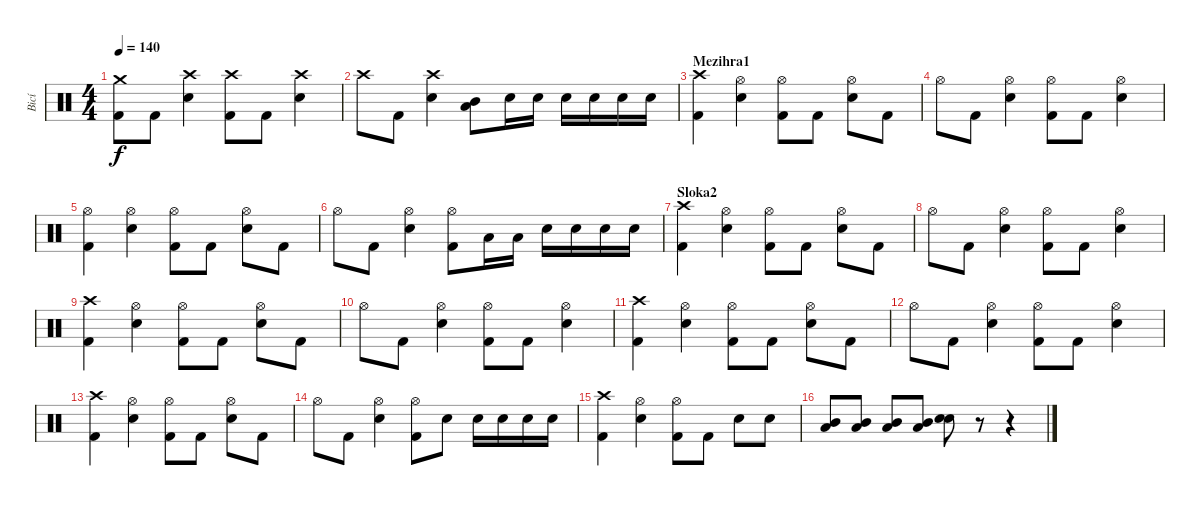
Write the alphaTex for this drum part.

\track ("Bicí" "Bicí") {instrument percussion}
\staff {score}
\articulation defaults
\ts (4 4)
\tempo 140
\clef neutral
\ks c
("Crash medium (hit)" "Kick (hit) 2").8{dy f} "Kick (hit) 2".8 ("Crash high (hit)" "Snare (hit) 2").4 ("Crash high (hit)" "Kick (hit) 2").8 "Kick (hit) 2".8 ("Crash high (hit)" "Snare (hit) 2").4 |
"Crash high (hit)".8 "Kick (hit) 2".8 ("Crash high (hit)" "Snare (hit) 2").4 ("Low Tom (hit)" "Mid Tom (hit)").8 "Snare (hit) 2".16 "Snare (hit) 2".16 "Snare (hit) 2".16 "Snare (hit) 2".16 "Snare (hit) 2".16 "Snare (hit) 2".16 |
\section ("" "Mezihra1")
("Crash high (hit)" "Kick (hit) 2").4 ("Hi-Hat (open)" "Snare (hit) 2").4 ("Hi-Hat (open)" "Kick (hit) 2").8 "Kick (hit) 2".8 ("Hi-Hat (open)" "Snare (hit) 2").8 "Kick (hit) 2".8 |
"Hi-Hat (open)".8 "Kick (hit) 2".8 ("Hi-Hat (open)" "Snare (hit) 2").4 ("Hi-Hat (open)" "Kick (hit) 2").8 "Kick (hit) 2".8 ("Hi-Hat (open)" "Snare (hit) 2").4 |
("Hi-Hat (open)" "Kick (hit) 2").4 ("Hi-Hat (open)" "Snare (hit) 2").4 ("Hi-Hat (open)" "Kick (hit) 2").8 "Kick (hit) 2".8 ("Hi-Hat (open)" "Snare (hit) 2").8 "Kick (hit) 2".8 |
"Hi-Hat (open)".8 "Kick (hit) 2".8 ("Hi-Hat (open)" "Snare (hit) 2").4 ("Hi-Hat (open)" "Kick (hit) 2").8 "Low Tom (hit)".16 "Low Tom (hit)".16 "Snare (hit) 2".16 "Snare (hit) 2".16 "Snare (hit) 2".16 "Snare (hit) 2".16 |
\section ("" "Sloka2")
("Crash high (hit)" "Kick (hit) 2").4 ("Hi-Hat (open)" "Snare (hit) 2").4 ("Hi-Hat (open)" "Kick (hit) 2").8 "Kick (hit) 2".8 ("Hi-Hat (open)" "Snare (hit) 2").8 "Kick (hit) 2".8 |
"Hi-Hat (open)".8 "Kick (hit) 2".8 ("Hi-Hat (open)" "Snare (hit) 2").4 ("Hi-Hat (open)" "Kick (hit) 2").8 "Kick (hit) 2".8 ("Hi-Hat (open)" "Snare (hit) 2").4 |
("Crash high (hit)" "Kick (hit) 2").4 ("Hi-Hat (open)" "Snare (hit) 2").4 ("Hi-Hat (open)" "Kick (hit) 2").8 "Kick (hit) 2".8 ("Hi-Hat (open)" "Snare (hit) 2").8 "Kick (hit) 2".8 |
"Hi-Hat (open)".8 "Kick (hit) 2".8 ("Hi-Hat (open)" "Snare (hit) 2").4 ("Hi-Hat (open)" "Kick (hit) 2").8 "Kick (hit) 2".8 ("Hi-Hat (open)" "Snare (hit) 2").4 |
("Crash high (hit)" "Kick (hit) 2").4 ("Hi-Hat (open)" "Snare (hit) 2").4 ("Hi-Hat (open)" "Kick (hit) 2").8 "Kick (hit) 2".8 ("Hi-Hat (open)" "Snare (hit) 2").8 "Kick (hit) 2".8 |
"Hi-Hat (open)".8 "Kick (hit) 2".8 ("Hi-Hat (open)" "Snare (hit) 2").4 ("Hi-Hat (open)" "Kick (hit) 2").8 "Kick (hit) 2".8 ("Hi-Hat (open)" "Snare (hit) 2").4 |
("Crash high (hit)" "Kick (hit) 2").4 ("Hi-Hat (open)" "Snare (hit) 2").4 ("Hi-Hat (open)" "Kick (hit) 2").8 "Kick (hit) 2".8 ("Hi-Hat (open)" "Snare (hit) 2").8 "Kick (hit) 2".8 |
"Hi-Hat (open)".8 "Kick (hit) 2".8 ("Hi-Hat (open)" "Snare (hit) 2").4 ("Hi-Hat (open)" "Kick (hit) 2").8 "Snare (hit) 2".8 "Snare (hit) 2".16 "Snare (hit) 2".16 "Snare (hit) 2".16 "Snare (hit) 2".16 |
("Crash high (hit)" "Kick (hit) 2").4 ("Hi-Hat (open)" "Snare (hit) 2").4 ("Hi-Hat (open)" "Kick (hit) 2").8 "Kick (hit) 2".8 "Snare (hit) 2".8 "Snare (hit) 2".8 |
("Low Tom (hit)" "Mid Tom (hit)").8 ("Low Tom (hit)" "Mid Tom (hit)").8 ("Low Tom (hit)" "Mid Tom (hit)").8 ("Low Tom (hit)" "Mid Tom (hit)").8 ("Snare (hit) 2" "Snare (hit) 2").8 r.8 r.4
